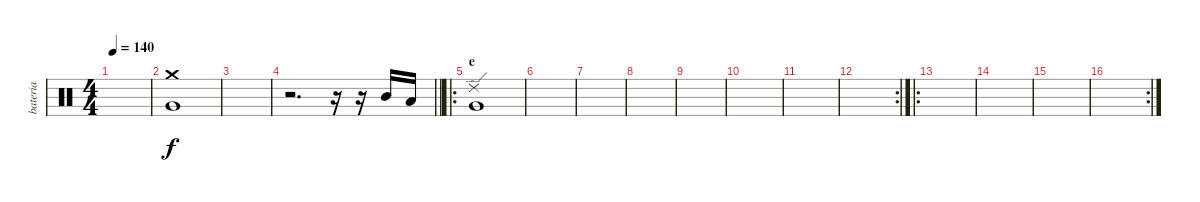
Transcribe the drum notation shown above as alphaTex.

\track ("bateria" "bateria") {instrument percussion}
\staff {score}
\articulation defaults
\ts (4 4)
\tempo 140
\clef neutral
\ks c
|
("Very Low Tom (hit)" "Crash medium (hit)").1 |
|
\barLineRight lightlight
r.2{d} r.16 r.16 "Mid Tom (hit)".16 "Low Tom (hit)".16 |
\ro
\section ("" "e")
("Very Low Tom (hit)" "Ride (edge) 2").1 |
|
|
|
|
|
|
\rc 2
|
\ro
|
|
|
\rc 2
